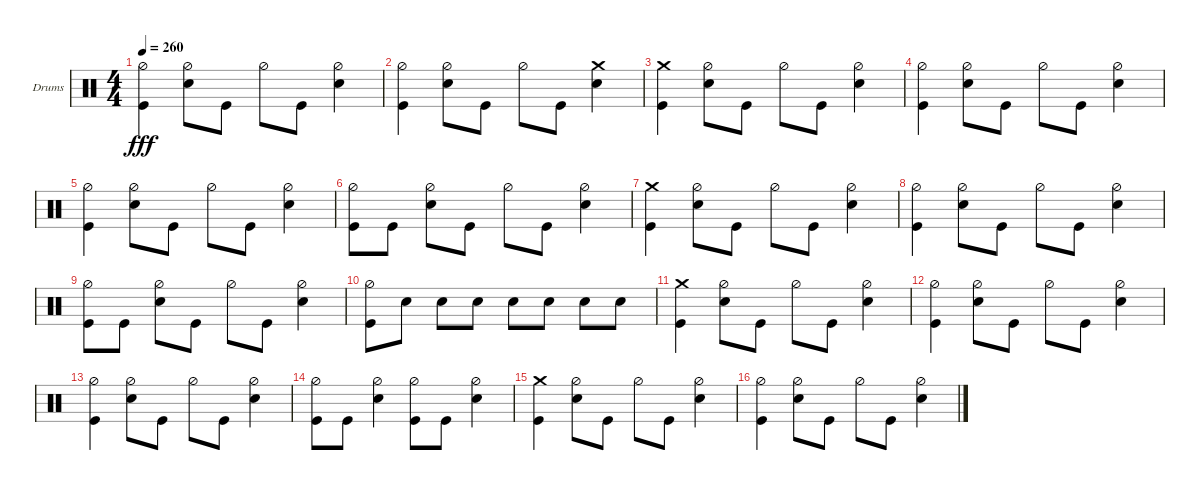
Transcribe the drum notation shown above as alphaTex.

\defaultSystemsLayout 4
\bracketExtendMode groupsimilarinstruments
\firstSystemTrackNameOrientation horizontal
\otherSystemsTrackNameOrientation horizontal
\track ("Stefan Schwarzmann" "Drums") {instrument percussion}
\staff {score}
\articulation defaults
\ts (4 4)
\tempo 260
\clef neutral
\ks c
("Kick (hit)" "Hi-Hat (half)").4{dy fff} ("Snare (hit) 2" "Hi-Hat (half)").8 "Kick (hit)".8 "Hi-Hat (half)".8 "Kick (hit)".8 ("Snare (hit) 2" "Hi-Hat (half)").4 |
("Kick (hit)" "Hi-Hat (half)").4 ("Snare (hit) 2" "Hi-Hat (half)").8 "Kick (hit)".8 "Hi-Hat (half)".8 "Kick (hit)".8 ("Snare (hit) 2" "Crash medium (hit)").4 |
("Kick (hit)" "Crash medium (hit)").4 ("Snare (hit) 2" "Hi-Hat (half)").8 "Kick (hit)".8 "Hi-Hat (half)".8 "Kick (hit)".8 ("Snare (hit) 2" "Hi-Hat (half)").4 |
("Kick (hit)" "Hi-Hat (half)").4 ("Snare (hit) 2" "Hi-Hat (half)").8 "Kick (hit)".8 "Hi-Hat (half)".8 "Kick (hit)".8 ("Snare (hit) 2" "Hi-Hat (half)").4 |
("Kick (hit)" "Hi-Hat (half)").4 ("Snare (hit) 2" "Hi-Hat (half)").8 "Kick (hit)".8 "Hi-Hat (half)".8 "Kick (hit)".8 ("Snare (hit) 2" "Hi-Hat (half)").4 |
("Kick (hit)" "Hi-Hat (half)").8 "Kick (hit)".8 ("Snare (hit) 2" "Hi-Hat (half)").8 "Kick (hit)".8 "Hi-Hat (half)".8 "Kick (hit)".8 ("Snare (hit) 2" "Hi-Hat (half)").4 |
("Kick (hit)" "Crash medium (hit)").4 ("Snare (hit) 2" "Hi-Hat (half)").8 "Kick (hit)".8 "Hi-Hat (half)".8 "Kick (hit)".8 ("Snare (hit) 2" "Hi-Hat (half)").4 |
("Kick (hit)" "Hi-Hat (half)").4 ("Snare (hit) 2" "Hi-Hat (half)").8 "Kick (hit)".8 "Hi-Hat (half)".8 "Kick (hit)".8 ("Snare (hit) 2" "Hi-Hat (half)").4 |
("Kick (hit)" "Hi-Hat (half)").8 "Kick (hit)".8 ("Snare (hit) 2" "Hi-Hat (half)").8 "Kick (hit)".8 "Hi-Hat (half)".8 "Kick (hit)".8 ("Snare (hit) 2" "Hi-Hat (half)").4 |
("Kick (hit)" "Hi-Hat (half)").8 "Snare (hit) 2".8 "Snare (hit) 2".8 "Snare (hit) 2".8 "Snare (hit) 2".8 "Snare (hit) 2".8 "Snare (hit) 2".8 "Snare (hit) 2".8 |
("Kick (hit)" "Crash medium (hit)").4 ("Snare (hit) 2" "Hi-Hat (half)").8 "Kick (hit)".8 "Hi-Hat (half)".8 "Kick (hit)".8 ("Snare (hit) 2" "Hi-Hat (half)").4 |
("Kick (hit)" "Hi-Hat (half)").4 ("Snare (hit) 2" "Hi-Hat (half)").8 "Kick (hit)".8 "Hi-Hat (half)".8 "Kick (hit)".8 ("Snare (hit) 2" "Hi-Hat (half)").4 |
("Kick (hit)" "Hi-Hat (half)").4 ("Snare (hit) 2" "Hi-Hat (half)").8 "Kick (hit)".8 "Hi-Hat (half)".8 "Kick (hit)".8 ("Snare (hit) 2" "Hi-Hat (half)").4 |
("Kick (hit)" "Hi-Hat (half)").8 "Kick (hit)".8 ("Snare (hit) 2" "Hi-Hat (half)").4 ("Kick (hit)" "Hi-Hat (half)").8 "Kick (hit)".8 ("Snare (hit) 2" "Hi-Hat (half)").4 |
("Kick (hit)" "Crash medium (hit)").4 ("Snare (hit) 2" "Hi-Hat (half)").8 "Kick (hit)".8 "Hi-Hat (half)".8 "Kick (hit)".8 ("Snare (hit) 2" "Hi-Hat (half)").4 |
("Kick (hit)" "Hi-Hat (half)").4 ("Snare (hit) 2" "Hi-Hat (half)").8 "Kick (hit)".8 "Hi-Hat (half)".8 "Kick (hit)".8 ("Snare (hit) 2" "Hi-Hat (half)").4
